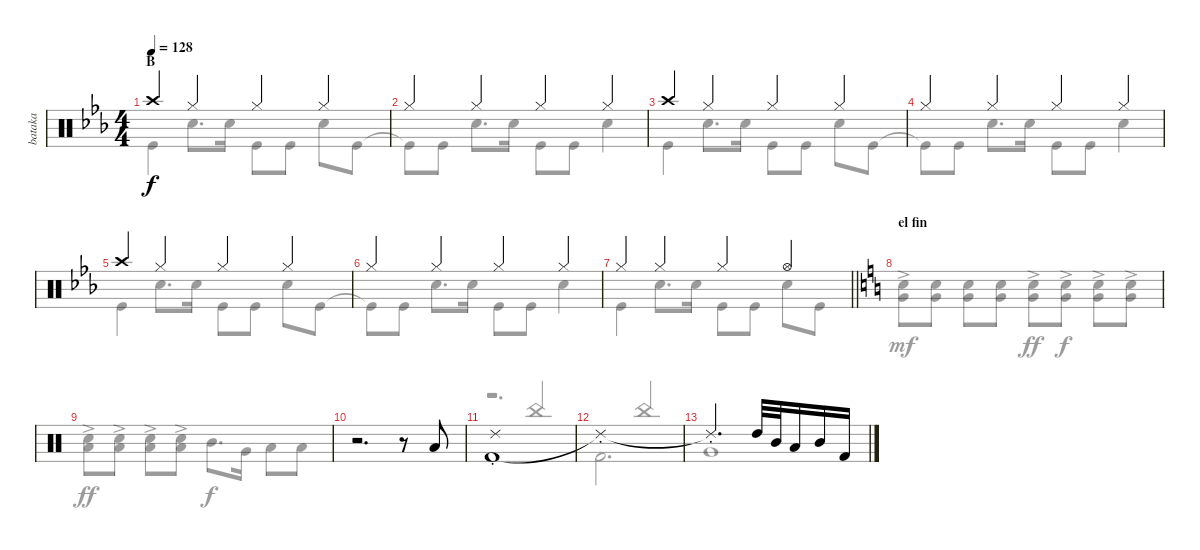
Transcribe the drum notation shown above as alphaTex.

\track ("bataka" "bataka") {mute instrument percussion}
\staff {score}
\articulation defaults
\voice
\ts (4 4)
\section ("" "B")
\tempo 128
\clef neutral
\ks eb "Crash high (hit)".4{dy f} "Hi-Hat (closed)".4 "Hi-Hat (closed)".4 "Hi-Hat (closed)".4
|
"Hi-Hat (closed)".4 "Hi-Hat (closed)".4 "Hi-Hat (closed)".4 "Hi-Hat (closed)".4 |
"Crash high (hit)".4 "Hi-Hat (closed)".4 "Hi-Hat (closed)".4 "Hi-Hat (closed)".4 |
"Hi-Hat (closed)".4 "Hi-Hat (closed)".4 "Hi-Hat (closed)".4 "Hi-Hat (closed)".4 |
"Crash high (hit)".4 "Hi-Hat (closed)".4 "Hi-Hat (closed)".4 "Hi-Hat (closed)".4 |
"Hi-Hat (closed)".4 "Hi-Hat (closed)".4 "Hi-Hat (closed)".4 "Hi-Hat (closed)".4 |
\barLineRight lightlight "Hi-Hat (closed)".4 "Hi-Hat (closed)".4 "Hi-Hat (closed)".4 "Hi-Hat (open)".4
|
\section ("" "el fin")
\ks c
|
|
r.2{d} r.8 "Low Floor Tom (hit)".8 |
("Kick (hit) 2" "Ride (choke) 2").1 |
"Ride (choke) 2"{t}.1 |
"Ride (choke) 2"{t}.2{d} "High Tom (hit)".32 "Mid Tom (hit)".32 "Low Tom (hit)".16 "Mid Tom (hit)".16 "Kick (hit) 2".16 |
\voice
\clef neutral
\ottava regular
\simile none
\ks eb "Kick (hit)".4{dy f} "Snare (hit) 2".8{d} "Snare (hit) 2".16 "Kick (hit)".8 "Kick (hit)".8 "Snare (hit) 2".8 "Kick (hit)".8
|
"Kick (hit)"{t}.8 "Kick (hit)".8 "Snare (hit) 2".8{d} "Snare (hit) 2".16 "Kick (hit)".8 "Kick (hit)".8 "Snare (hit) 2".4 |
"Kick (hit)".4 "Snare (hit) 2".8{d} "Snare (hit) 2".16 "Kick (hit)".8 "Kick (hit)".8 "Snare (hit) 2".8 "Kick (hit)".8 |
"Kick (hit)"{t}.8 "Kick (hit)".8 "Snare (hit) 2".8{d} "Snare (hit) 2".16 "Kick (hit)".8 "Kick (hit)".8 "Snare (hit) 2".4 |
"Kick (hit)".4 "Snare (hit) 2".8{d} "Snare (hit) 2".16 "Kick (hit)".8 "Kick (hit)".8 "Snare (hit) 2".8 "Kick (hit)".8 |
"Kick (hit)"{t}.8 "Kick (hit)".8 "Snare (hit) 2".8{d} "Snare (hit) 2".16 "Kick (hit)".8 "Kick (hit)".8 "Snare (hit) 2".4 |
\barLineRight lightlight "Kick (hit)".4 "Snare (hit) 2".8{d} "Snare (hit) 2".16 "Kick (hit)".8 "Kick (hit)".8 "Snare (hit) 2".8 "Kick (hit)".8
|
\ks c
("Very Low Tom (hit)" "Snare (hit) 2"{ac}).8{dy mf} ("Snare (hit) 2" "Very Low Tom (hit)").8 ("Very Low Tom (hit)" "Snare (hit) 2").8 ("Very Low Tom (hit)" "Snare (hit) 2").8 ("Very Low Tom (hit)"{ac} "Snare (hit) 2"{ac}).8{dy ff} ("Very Low Tom (hit)"{ac} "Snare (hit) 2"{ac}).8{dy f} ("Very Low Tom (hit)"{ac} "Snare (hit) 2"{ac}).8 ("Very Low Tom (hit)"{ac} "Snare (hit) 2"{ac}).8 |
("Low Floor Tom (hit)"{ac} "Snare (hit) 2"{ac}).8{dy ff} ("Snare (hit) 2"{ac} "Low Floor Tom (hit)"{ac}).8 ("Low Floor Tom (hit)"{ac} "Snare (hit) 2"{ac}).8 ("Snare (hit) 2"{ac} "Low Floor Tom (hit)"{ac}).8 "Mid Tom (hit)".8{d dy f} "Very Low Tom (hit)".16 "Low Floor Tom (hit)".8 "Low Floor Tom (hit)".8 |
|
r.2{d} "China (hit)".4{beam Up} |
"Kick (hit) 2".2{d} "China (hit)".4{beam Up} |
"Very Low Tom (hit)".1 |
